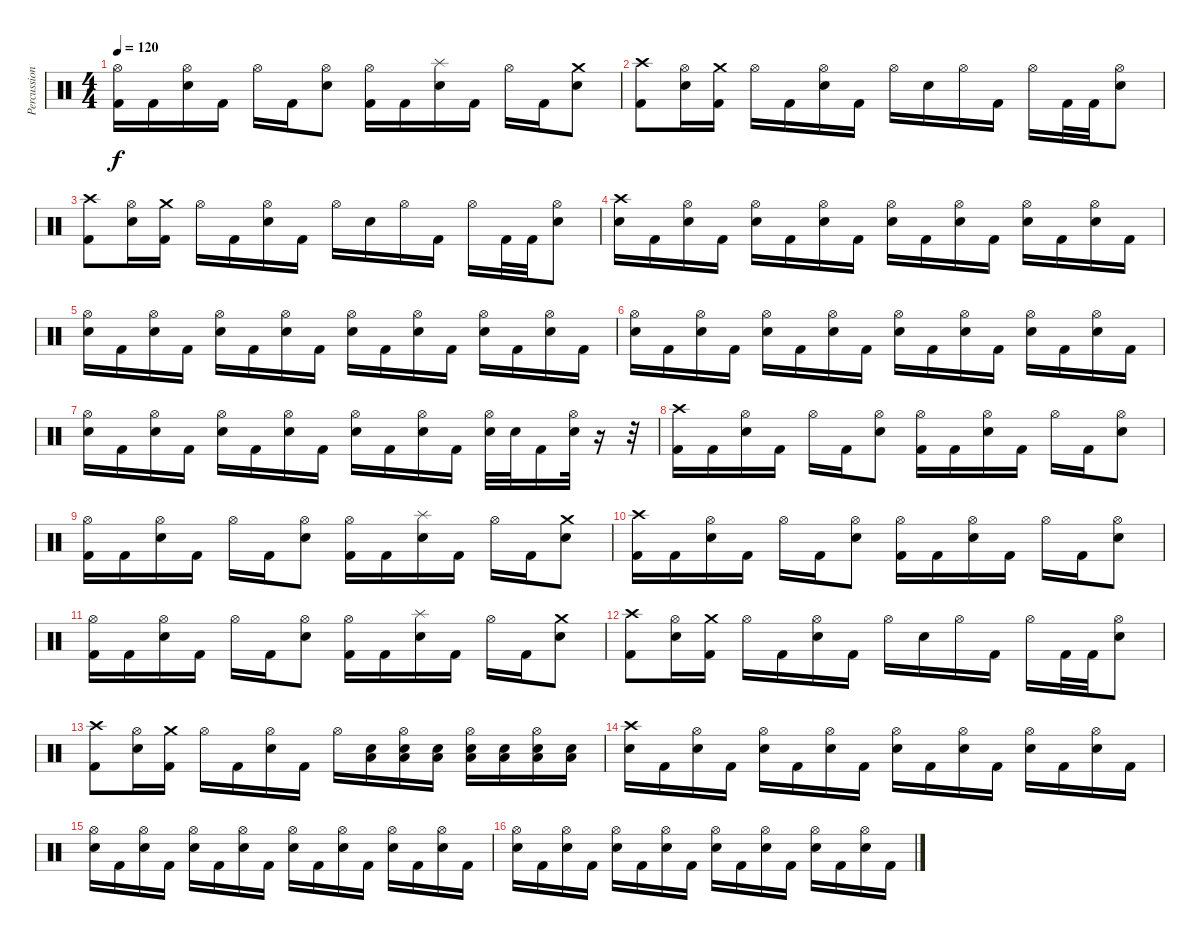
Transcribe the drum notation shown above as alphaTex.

\track ("Percussions" "Percussion") {instrument percussion}
\staff {score}
\articulation defaults
\ts (4 4)
\tempo 120
\clef neutral
\ks c
("Kick (hit) 2" "Hi-Hat (open)").16{dy f} "Kick (hit) 2".16 ("Electric Snare (hit)" "Hi-Hat (open)").16 "Kick (hit) 2".16 "Hi-Hat (open)".16 "Kick (hit) 2".16 ("Electric Snare (hit)" "Hi-Hat (open)").8 ("Kick (hit) 2" "Hi-Hat (open)").16 "Kick (hit) 2".16 ("Electric Snare (hit)" "Splash (hit)").16 "Kick (hit) 2".16 "Hi-Hat (open)".16 "Kick (hit) 2".16 ("Electric Snare (hit)" "Crash medium (hit)").8 |
("Kick (hit) 2" "Crash high (hit)").8 ("Electric Snare (hit)" "Hi-Hat (open)").16 ("Kick (hit) 2" "Crash medium (hit)").16 "Hi-Hat (open)".16 "Kick (hit) 2".16 ("Electric Snare (hit)" "Hi-Hat (open)").16 "Kick (hit) 2".16 "Hi-Hat (open)".16 "Electric Snare (hit)".16 "Hi-Hat (open)".16 "Kick (hit) 2".16 "Hi-Hat (open)".16 "Kick (hit) 2".32 "Kick (hit) 2".32 ("Electric Snare (hit)" "Hi-Hat (open)").8 |
("Kick (hit) 2" "Crash high (hit)").8 ("Electric Snare (hit)" "Hi-Hat (open)").16 ("Kick (hit) 2" "Crash medium (hit)").16 "Hi-Hat (open)".16 "Kick (hit) 2".16 ("Electric Snare (hit)" "Hi-Hat (open)").16 "Kick (hit) 2".16 "Hi-Hat (open)".16 "Electric Snare (hit)".16 "Hi-Hat (open)".16 "Kick (hit) 2".16 "Hi-Hat (open)".16 "Kick (hit) 2".32 "Kick (hit) 2".32 ("Electric Snare (hit)" "Hi-Hat (open)").8 |
("Electric Snare (hit)" "Crash high (hit)").16 "Kick (hit) 2".16 ("Hi-Hat (open)" "Electric Snare (hit)").16 "Kick (hit) 2".16 ("Hi-Hat (open)" "Electric Snare (hit)").16 "Kick (hit) 2".16 ("Hi-Hat (open)" "Electric Snare (hit)").16 "Kick (hit) 2".16 ("Electric Snare (hit)" "Hi-Hat (open)").16 "Kick (hit) 2".16 ("Hi-Hat (open)" "Electric Snare (hit)").16 "Kick (hit) 2".16 ("Hi-Hat (open)" "Electric Snare (hit)").16 "Kick (hit) 2".16 ("Hi-Hat (open)" "Electric Snare (hit)").16 "Kick (hit) 2".16 |
("Electric Snare (hit)" "Hi-Hat (open)").16 "Kick (hit) 2".16 ("Hi-Hat (open)" "Electric Snare (hit)").16 "Kick (hit) 2".16 ("Hi-Hat (open)" "Electric Snare (hit)").16 "Kick (hit) 2".16 ("Hi-Hat (open)" "Electric Snare (hit)").16 "Kick (hit) 2".16 ("Electric Snare (hit)" "Hi-Hat (open)").16 "Kick (hit) 2".16 ("Hi-Hat (open)" "Electric Snare (hit)").16 "Kick (hit) 2".16 ("Hi-Hat (open)" "Electric Snare (hit)").16 "Kick (hit) 2".16 ("Hi-Hat (open)" "Electric Snare (hit)").16 "Kick (hit) 2".16 |
("Electric Snare (hit)" "Hi-Hat (open)").16 "Kick (hit) 2".16 ("Hi-Hat (open)" "Electric Snare (hit)").16 "Kick (hit) 2".16 ("Hi-Hat (open)" "Electric Snare (hit)").16 "Kick (hit) 2".16 ("Hi-Hat (open)" "Electric Snare (hit)").16 "Kick (hit) 2".16 ("Electric Snare (hit)" "Hi-Hat (open)").16 "Kick (hit) 2".16 ("Hi-Hat (open)" "Electric Snare (hit)").16 "Kick (hit) 2".16 ("Hi-Hat (open)" "Electric Snare (hit)").16 "Kick (hit) 2".16 ("Hi-Hat (open)" "Electric Snare (hit)").16 "Kick (hit) 2".16 |
("Electric Snare (hit)" "Hi-Hat (open)").16 "Kick (hit) 2".16 ("Hi-Hat (open)" "Electric Snare (hit)").16 "Kick (hit) 2".16 ("Hi-Hat (open)" "Electric Snare (hit)").16 "Kick (hit) 2".16 ("Hi-Hat (open)" "Electric Snare (hit)").16 "Kick (hit) 2".16 ("Electric Snare (hit)" "Hi-Hat (open)").16 "Kick (hit) 2".16 ("Hi-Hat (open)" "Electric Snare (hit)").16 "Kick (hit) 2".16 ("Hi-Hat (open)" "Electric Snare (hit)").32 "Electric Snare (hit)".32 "Kick (hit) 2".16 ("Hi-Hat (open)" "Electric Snare (hit)").32 r.16 r.32 |
("Kick (hit) 2" "Crash high (hit)").16 "Kick (hit) 2".16 ("Electric Snare (hit)" "Hi-Hat (open)").16 "Kick (hit) 2".16 "Hi-Hat (open)".16 "Kick (hit) 2".16 ("Electric Snare (hit)" "Hi-Hat (open)").8 ("Kick (hit) 2" "Hi-Hat (open)").16 "Kick (hit) 2".16 ("Electric Snare (hit)" "Hi-Hat (open)").16 "Kick (hit) 2".16 "Hi-Hat (open)".16 "Kick (hit) 2".16 ("Electric Snare (hit)" "Hi-Hat (open)").8 |
("Kick (hit) 2" "Hi-Hat (open)").16 "Kick (hit) 2".16 ("Electric Snare (hit)" "Hi-Hat (open)").16 "Kick (hit) 2".16 "Hi-Hat (open)".16 "Kick (hit) 2".16 ("Electric Snare (hit)" "Hi-Hat (open)").8 ("Kick (hit) 2" "Hi-Hat (open)").16 "Kick (hit) 2".16 ("Electric Snare (hit)" "Splash (hit)").16 "Kick (hit) 2".16 "Hi-Hat (open)".16 "Kick (hit) 2".16 ("Electric Snare (hit)" "Crash medium (hit)").8 |
("Kick (hit) 2" "Crash high (hit)").16 "Kick (hit) 2".16 ("Electric Snare (hit)" "Hi-Hat (open)").16 "Kick (hit) 2".16 "Hi-Hat (open)".16 "Kick (hit) 2".16 ("Electric Snare (hit)" "Hi-Hat (open)").8 ("Kick (hit) 2" "Hi-Hat (open)").16 "Kick (hit) 2".16 ("Electric Snare (hit)" "Hi-Hat (open)").16 "Kick (hit) 2".16 "Hi-Hat (open)".16 "Kick (hit) 2".16 ("Electric Snare (hit)" "Hi-Hat (open)").8 |
("Kick (hit) 2" "Hi-Hat (open)").16 "Kick (hit) 2".16 ("Electric Snare (hit)" "Hi-Hat (open)").16 "Kick (hit) 2".16 "Hi-Hat (open)".16 "Kick (hit) 2".16 ("Electric Snare (hit)" "Hi-Hat (open)").8 ("Kick (hit) 2" "Hi-Hat (open)").16 "Kick (hit) 2".16 ("Electric Snare (hit)" "Splash (hit)").16 "Kick (hit) 2".16 "Hi-Hat (open)".16 "Kick (hit) 2".16 ("Electric Snare (hit)" "Crash medium (hit)").8 |
("Kick (hit) 2" "Crash high (hit)").8 ("Electric Snare (hit)" "Hi-Hat (open)").16 ("Kick (hit) 2" "Crash medium (hit)").16 "Hi-Hat (open)".16 "Kick (hit) 2".16 ("Electric Snare (hit)" "Hi-Hat (open)").16 "Kick (hit) 2".16 "Hi-Hat (open)".16 "Electric Snare (hit)".16 "Hi-Hat (open)".16 "Kick (hit) 2".16 "Hi-Hat (open)".16 "Kick (hit) 2".32 "Kick (hit) 2".32 ("Electric Snare (hit)" "Hi-Hat (open)").8 |
("Kick (hit) 2" "Crash high (hit)").8 ("Electric Snare (hit)" "Hi-Hat (open)").16 ("Kick (hit) 2" "Crash medium (hit)").16 "Hi-Hat (open)".16 "Kick (hit) 2".16 ("Electric Snare (hit)" "Hi-Hat (open)").16 "Kick (hit) 2".16 "Hi-Hat (open)".16 ("Electric Snare (hit)" "Low Tom (hit)").16 ("Hi-Hat (open)" "Electric Snare (hit)" "Low Tom (hit)").16 ("Electric Snare (hit)" "Low Tom (hit)").16 ("Hi-Hat (open)" "Electric Snare (hit)" "Low Tom (hit)").16 ("Electric Snare (hit)" "Low Tom (hit)").16 ("Hi-Hat (open)" "Electric Snare (hit)" "Low Tom (hit)").16 ("Electric Snare (hit)" "Low Tom (hit)").16 |
("Electric Snare (hit)" "Crash high (hit)").16 "Kick (hit) 2".16 ("Hi-Hat (open)" "Electric Snare (hit)").16 "Kick (hit) 2".16 ("Hi-Hat (open)" "Electric Snare (hit)").16 "Kick (hit) 2".16 ("Hi-Hat (open)" "Electric Snare (hit)").16 "Kick (hit) 2".16 ("Electric Snare (hit)" "Hi-Hat (open)").16 "Kick (hit) 2".16 ("Hi-Hat (open)" "Electric Snare (hit)").16 "Kick (hit) 2".16 ("Hi-Hat (open)" "Electric Snare (hit)").16 "Kick (hit) 2".16 ("Hi-Hat (open)" "Electric Snare (hit)").16 "Kick (hit) 2".16 |
("Electric Snare (hit)" "Hi-Hat (open)").16 "Kick (hit) 2".16 ("Hi-Hat (open)" "Electric Snare (hit)").16 "Kick (hit) 2".16 ("Hi-Hat (open)" "Electric Snare (hit)").16 "Kick (hit) 2".16 ("Hi-Hat (open)" "Electric Snare (hit)").16 "Kick (hit) 2".16 ("Electric Snare (hit)" "Hi-Hat (open)").16 "Kick (hit) 2".16 ("Hi-Hat (open)" "Electric Snare (hit)").16 "Kick (hit) 2".16 ("Hi-Hat (open)" "Electric Snare (hit)").16 "Kick (hit) 2".16 ("Hi-Hat (open)" "Electric Snare (hit)").16 "Kick (hit) 2".16 |
("Electric Snare (hit)" "Hi-Hat (open)").16 "Kick (hit) 2".16 ("Hi-Hat (open)" "Electric Snare (hit)").16 "Kick (hit) 2".16 ("Hi-Hat (open)" "Electric Snare (hit)").16 "Kick (hit) 2".16 ("Hi-Hat (open)" "Electric Snare (hit)").16 "Kick (hit) 2".16 ("Electric Snare (hit)" "Hi-Hat (open)").16 "Kick (hit) 2".16 ("Hi-Hat (open)" "Electric Snare (hit)").16 "Kick (hit) 2".16 ("Hi-Hat (open)" "Electric Snare (hit)").16 "Kick (hit) 2".16 ("Hi-Hat (open)" "Electric Snare (hit)").16 "Kick (hit) 2".16
